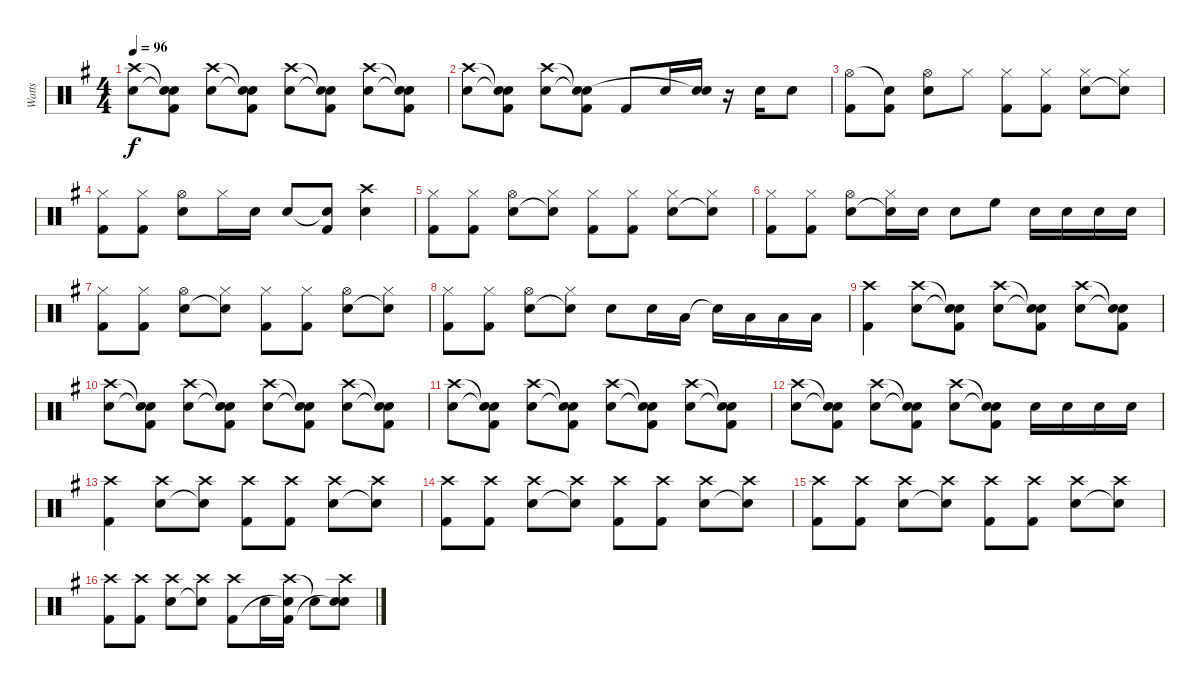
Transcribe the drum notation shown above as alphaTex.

\track ("Watts" "Watts") {instrument percussion}
\staff {score}
\articulation defaults
\ts (4 4)
\tempo 96
\clef neutral
\ks g
("Crash high (hit)" "Snare (hit) 2").8{dy f} ("Snare (hit)"{t} "Snare (hit)"{t} "Kick (hit) 2").8 ("Crash high (hit)" "Snare (hit) 2").8 ("Snare (hit)"{t} "Snare (hit)"{t} "Kick (hit) 2").8 ("Crash high (hit)" "Snare (hit) 2").8 ("Snare (hit)"{t} "Snare (hit)"{t} "Kick (hit) 2").8 ("Crash high (hit)" "Snare (hit) 2").8 ("Snare (hit)"{t} "Snare (hit)"{t} "Kick (hit) 2").8 |
("Crash high (hit)" "Snare (hit) 2").8 ("Snare (hit)"{t} "Snare (hit)"{t} "Kick (hit) 2").8 ("Crash high (hit)" "Snare (hit) 2").8 ("Snare (hit)"{t} "Snare (hit)"{t} "Kick (hit) 2").8 "Kick (hit) 2".8 "Snare (hit) 2".16 ("Snare (hit) 2" "Snare (hit)"{t}).16 r.16 "Snare (hit) 2".16 "Snare (hit) 2".8 |
("Hi-Hat (open)" "Kick (hit) 2").8 ("Snare (hit)"{t} "Kick (hit) 2").8 ("Hi-Hat (open)" "Snare (hit) 2").8 "Hi-Hat (closed)".8 ("Hi-Hat (closed)" "Kick (hit) 2").8 ("Hi-Hat (closed)" "Kick (hit) 2").8 ("Hi-Hat (closed)" "Snare (hit) 2").8 ("Hi-Hat (closed)" "Snare (hit)"{t}).8 |
("Hi-Hat (closed)" "Kick (hit) 2").8 ("Hi-Hat (closed)" "Kick (hit) 2").8 ("Hi-Hat (open)" "Snare (hit) 2").8 "Hi-Hat (closed)".16 "Snare (hit) 2".16 "Snare (hit) 2".8 ("Snare (hit)"{t} "Kick (hit) 2").8 ("Crash high (hit)" "Snare (hit) 2").4 |
("Hi-Hat (closed)" "Kick (hit) 2").8 ("Hi-Hat (closed)" "Kick (hit) 2").8 ("Hi-Hat (open)" "Snare (hit) 2").8 ("Hi-Hat (closed)" "Snare (hit)"{t}).8 ("Hi-Hat (closed)" "Kick (hit) 2").8 ("Hi-Hat (closed)" "Kick (hit) 2").8 ("Hi-Hat (closed)" "Snare (hit) 2").8 ("Hi-Hat (closed)" "Snare (hit)"{t}).8 |
("Hi-Hat (closed)" "Kick (hit) 2").8 ("Hi-Hat (closed)" "Kick (hit) 2").8 ("Hi-Hat (open)" "Snare (hit) 2").8 ("Hi-Hat (closed)" "Snare (hit)"{t}).16 "Snare (hit) 2".16 "Snare (hit) 2".8 "High Floor Tom (hit)".8 "Snare (hit) 2".16 "Snare (hit) 2".16 "Snare (hit) 2".16 "Snare (hit) 2".16 |
("Hi-Hat (closed)" "Kick (hit) 2").8 ("Hi-Hat (closed)" "Kick (hit) 2").8 ("Hi-Hat (open)" "Snare (hit) 2").8 ("Hi-Hat (closed)" "Snare (hit)"{t}).8 ("Hi-Hat (closed)" "Kick (hit) 2").8 ("Hi-Hat (closed)" "Kick (hit) 2").8 ("Hi-Hat (open)" "Snare (hit) 2").8 ("Hi-Hat (closed)" "Snare (hit)"{t}).8 |
("Hi-Hat (closed)" "Kick (hit) 2").8 ("Hi-Hat (closed)" "Kick (hit) 2").8 ("Hi-Hat (open)" "Snare (hit) 2").8 ("Hi-Hat (closed)" "Snare (hit)"{t}).8 "Snare (hit) 2".8 "Snare (hit) 2".16 "Low Tom (hit)".16 "Snare (hit)"{t}.16 "Low Tom (hit)".16 "Low Tom (hit)".16 "Low Tom (hit)".16 |
("Crash high (hit)" "Kick (hit) 2").4 ("Crash high (hit)" "Snare (hit) 2").8 ("Snare (hit)"{t} "Snare (hit)"{t} "Kick (hit) 2").8 ("Crash high (hit)" "Snare (hit) 2").8 ("Snare (hit)"{t} "Snare (hit)"{t} "Kick (hit) 2").8 ("Crash high (hit)" "Snare (hit) 2").8 ("Snare (hit)"{t} "Snare (hit)"{t} "Kick (hit) 2").8 |
("Crash high (hit)" "Snare (hit) 2").8 ("Snare (hit)"{t} "Snare (hit)"{t} "Kick (hit) 2").8 ("Crash high (hit)" "Snare (hit) 2").8 ("Snare (hit)"{t} "Snare (hit)"{t} "Kick (hit) 2").8 ("Crash high (hit)" "Snare (hit) 2").8 ("Snare (hit)"{t} "Snare (hit)"{t} "Kick (hit) 2").8 ("Crash high (hit)" "Snare (hit) 2").8 ("Snare (hit)"{t} "Snare (hit)"{t} "Kick (hit) 2").8 |
("Crash high (hit)" "Snare (hit) 2").8 ("Snare (hit)"{t} "Snare (hit)"{t} "Kick (hit) 2").8 ("Crash high (hit)" "Snare (hit) 2").8 ("Snare (hit)"{t} "Snare (hit)"{t} "Kick (hit) 2").8 ("Crash high (hit)" "Snare (hit) 2").8 ("Snare (hit)"{t} "Snare (hit)"{t} "Kick (hit) 2").8 ("Crash high (hit)" "Snare (hit) 2").8 ("Snare (hit)"{t} "Snare (hit)"{t} "Kick (hit) 2").8 |
("Crash high (hit)" "Snare (hit) 2").8 ("Snare (hit)"{t} "Snare (hit)"{t} "Kick (hit) 2").8 ("Crash high (hit)" "Snare (hit) 2").8 ("Snare (hit)"{t} "Snare (hit)"{t} "Kick (hit) 2").8 ("Crash high (hit)" "Snare (hit) 2").8 ("Snare (hit)"{t} "Snare (hit)"{t} "Kick (hit) 2").8 "Snare (hit) 2".16 "Snare (hit) 2".16 "Snare (hit) 2".16 "Snare (hit) 2".16 |
("Crash high (hit)" "Kick (hit) 2").4 ("Crash high (hit)" "Snare (hit) 2").8 ("Crash high (hit)" "Snare (hit)"{t}).8 ("Crash high (hit)" "Kick (hit) 2").8 ("Crash high (hit)" "Kick (hit) 2").8 ("Crash high (hit)" "Snare (hit) 2").8 ("Crash high (hit)" "Snare (hit)"{t}).8 |
("Crash high (hit)" "Kick (hit) 2").8 ("Crash high (hit)" "Kick (hit) 2").8 ("Crash high (hit)" "Snare (hit) 2").8 ("Crash high (hit)" "Snare (hit)"{t}).8 ("Crash high (hit)" "Kick (hit) 2").8 ("Crash high (hit)" "Kick (hit) 2").8 ("Crash high (hit)" "Snare (hit) 2").8 ("Crash high (hit)" "Snare (hit)"{t}).8 |
("Crash high (hit)" "Kick (hit) 2").8 ("Crash high (hit)" "Kick (hit) 2").8 ("Crash high (hit)" "Snare (hit) 2").8 ("Crash high (hit)" "Snare (hit)"{t}).8 ("Crash high (hit)" "Kick (hit) 2").8 ("Crash high (hit)" "Kick (hit) 2").8 ("Crash high (hit)" "Snare (hit) 2").8 ("Crash high (hit)" "Snare (hit)"{t}).8 |
("Crash high (hit)" "Kick (hit) 2").8 ("Crash high (hit)" "Kick (hit) 2").8 ("Crash high (hit)" "Snare (hit) 2").8 ("Crash high (hit)" "Snare (hit)"{t}).8 ("Crash high (hit)" "Kick (hit) 2").8 "Snare (hit) 2".16 ("Crash high (hit)" "Snare (hit)"{t} "Kick (hit) 2").16 "Snare (hit)"{t}.8 ("Crash high (hit)" "Snare (hit) 2" "Snare (hit)"{t}).8
